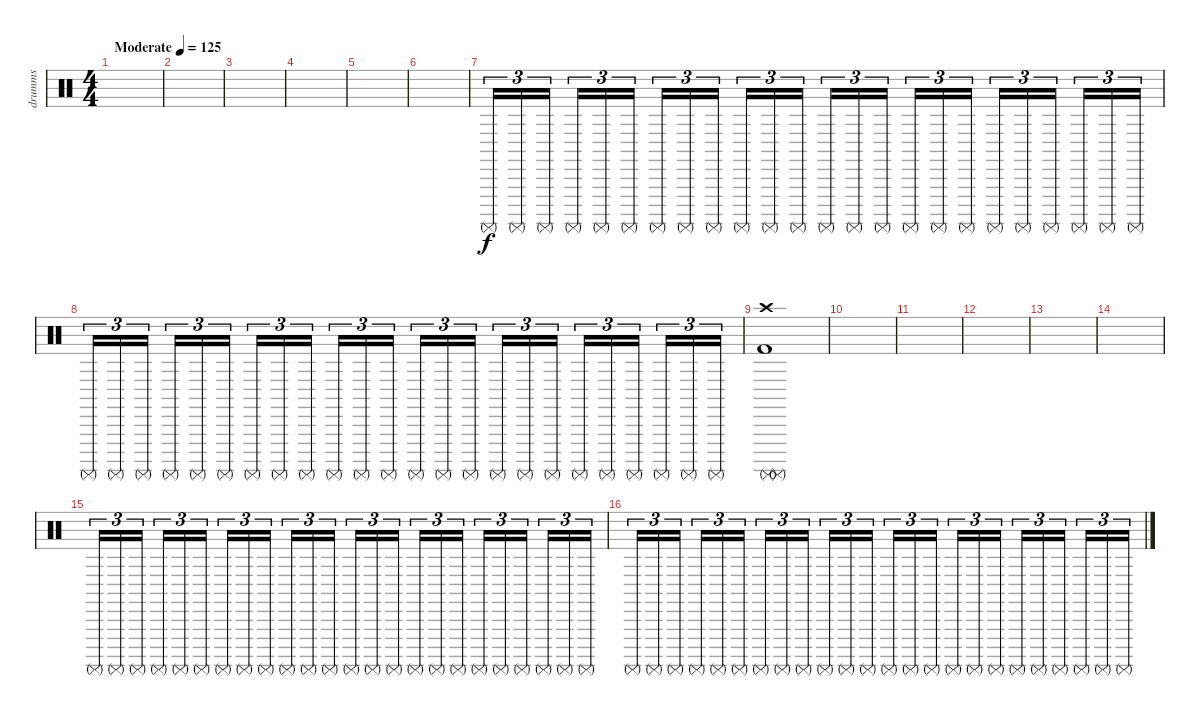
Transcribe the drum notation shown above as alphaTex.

\track ("drumms" "drumms") {instrument percussion}
\staff {score}
\articulation defaults
\ts (4 4)
\tempo (125 "Moderate")
\clef neutral
\ks c
|
|
|
|
|
|
"Surdo (mute)".16{tu (3 2) volume 14} "Surdo (mute)".16{tu (3 2)} "Surdo (mute)".16{tu (3 2) beam splitsecondary} "Surdo (mute)".16{tu (3 2)} "Surdo (mute)".16{tu (3 2)} "Surdo (mute)".16{tu (3 2)} "Surdo (mute)".16{tu (3 2)} "Surdo (mute)".16{tu (3 2)} "Surdo (mute)".16{tu (3 2) beam splitsecondary} "Surdo (mute)".16{tu (3 2)} "Surdo (mute)".16{tu (3 2)} "Surdo (mute)".16{tu (3 2)} "Surdo (mute)".16{tu (3 2)} "Surdo (mute)".16{tu (3 2)} "Surdo (mute)".16{tu (3 2) beam splitsecondary} "Surdo (mute)".16{tu (3 2)} "Surdo (mute)".16{tu (3 2)} "Surdo (mute)".16{tu (3 2)} "Surdo (mute)".16{tu (3 2)} "Surdo (mute)".16{tu (3 2)} "Surdo (mute)".16{tu (3 2) beam splitsecondary} "Surdo (mute)".16{tu (3 2)} "Surdo (mute)".16{tu (3 2)} "Surdo (mute)".16{tu (3 2)} |
"Surdo (mute)".16{tu (3 2)} "Surdo (mute)".16{tu (3 2)} "Surdo (mute)".16{tu (3 2) beam splitsecondary} "Surdo (mute)".16{tu (3 2)} "Surdo (mute)".16{tu (3 2)} "Surdo (mute)".16{tu (3 2)} "Surdo (mute)".16{tu (3 2)} "Surdo (mute)".16{tu (3 2)} "Surdo (mute)".16{tu (3 2) beam splitsecondary} "Surdo (mute)".16{tu (3 2)} "Surdo (mute)".16{tu (3 2)} "Surdo (mute)".16{tu (3 2)} "Surdo (mute)".16{tu (3 2)} "Surdo (mute)".16{tu (3 2)} "Surdo (mute)".16{tu (3 2) beam splitsecondary} "Surdo (mute)".16{tu (3 2)} "Surdo (mute)".16{tu (3 2)} "Surdo (mute)".16{tu (3 2)} "Surdo (mute)".16{tu (3 2)} "Surdo (mute)".16{tu (3 2)} "Surdo (mute)".16{tu (3 2) beam splitsecondary} "Surdo (mute)".16{tu (3 2)} "Surdo (mute)".16{tu (3 2)} "Surdo (mute)".16{tu (3 2)} |
("Surdo (mute)" "Surdo (mute)" "Kick (hit) 2" "Crash high (hit)").1 |
|
|
|
|
|
"Surdo (mute)".16{tu (3 2)} "Surdo (mute)".16{tu (3 2)} "Surdo (mute)".16{tu (3 2) beam splitsecondary} "Surdo (mute)".16{tu (3 2)} "Surdo (mute)".16{tu (3 2)} "Surdo (mute)".16{tu (3 2)} "Surdo (mute)".16{tu (3 2)} "Surdo (mute)".16{tu (3 2)} "Surdo (mute)".16{tu (3 2) beam splitsecondary} "Surdo (mute)".16{tu (3 2)} "Surdo (mute)".16{tu (3 2)} "Surdo (mute)".16{tu (3 2)} "Surdo (mute)".16{tu (3 2)} "Surdo (mute)".16{tu (3 2)} "Surdo (mute)".16{tu (3 2) beam splitsecondary} "Surdo (mute)".16{tu (3 2)} "Surdo (mute)".16{tu (3 2)} "Surdo (mute)".16{tu (3 2)} "Surdo (mute)".16{tu (3 2)} "Surdo (mute)".16{tu (3 2)} "Surdo (mute)".16{tu (3 2) beam splitsecondary} "Surdo (mute)".16{tu (3 2)} "Surdo (mute)".16{tu (3 2)} "Surdo (mute)".16{tu (3 2)} |
"Surdo (mute)".16{tu (3 2)} "Surdo (mute)".16{tu (3 2)} "Surdo (mute)".16{tu (3 2) beam splitsecondary} "Surdo (mute)".16{tu (3 2)} "Surdo (mute)".16{tu (3 2)} "Surdo (mute)".16{tu (3 2)} "Surdo (mute)".16{tu (3 2)} "Surdo (mute)".16{tu (3 2)} "Surdo (mute)".16{tu (3 2) beam splitsecondary} "Surdo (mute)".16{tu (3 2)} "Surdo (mute)".16{tu (3 2)} "Surdo (mute)".16{tu (3 2)} "Surdo (mute)".16{tu (3 2)} "Surdo (mute)".16{tu (3 2)} "Surdo (mute)".16{tu (3 2) beam splitsecondary} "Surdo (mute)".16{tu (3 2)} "Surdo (mute)".16{tu (3 2)} "Surdo (mute)".16{tu (3 2)} "Surdo (mute)".16{tu (3 2)} "Surdo (mute)".16{tu (3 2)} "Surdo (mute)".16{tu (3 2) beam splitsecondary} "Surdo (mute)".16{tu (3 2)} "Surdo (mute)".16{tu (3 2)} "Surdo (mute)".16{tu (3 2)}
